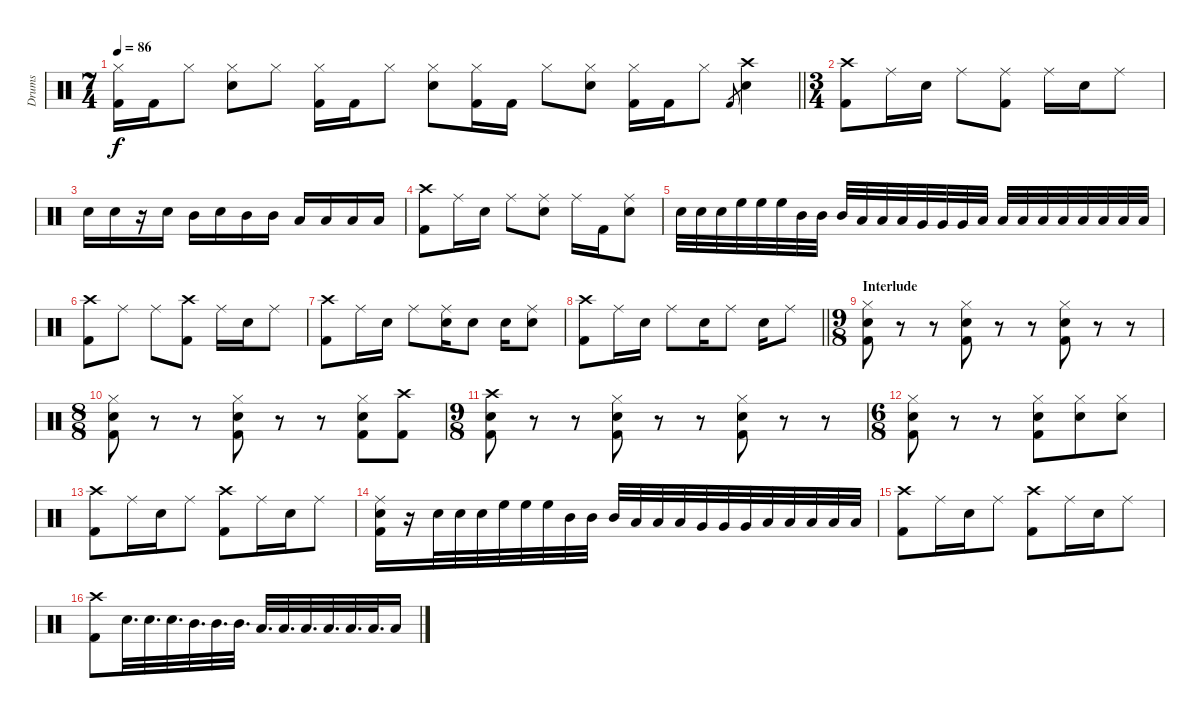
\track ("Drums" "Drums") {instrument percussion}
\staff {score}
\articulation defaults
\ts (7 4)
\tempo 86
\clef neutral
\barLineRight lightlight
\ks c
("Hi-Hat (closed)" "Kick (hit) 2").16{dy f} "Kick (hit) 2".16 "Hi-Hat (closed)".8 ("Hi-Hat (closed)" "Snare (hit) 2").8 "Hi-Hat (closed)".8 ("Hi-Hat (closed)" "Kick (hit) 2").16 "Kick (hit) 2".16 "Hi-Hat (closed)".8 ("Hi-Hat (closed)" "Snare (hit) 2").8 ("Hi-Hat (closed)" "Kick (hit) 2").16 "Kick (hit) 2".16 "Hi-Hat (closed)".8 ("Hi-Hat (closed)" "Snare (hit) 2").8 ("Hi-Hat (closed)" "Kick (hit) 2").16 "Kick (hit) 2".16 "Hi-Hat (closed)".8 "Kick (hit) 2".8{gr} ("Crash high (hit)" "Snare (hit) 2").4 |
\ts (3 4)
("Crash high (hit)" "Kick (hit) 2").8 "Ride (middle)".16 "Snare (hit) 2".16 "Ride (middle)".8 ("Ride (middle)" "Kick (hit) 2").8 "Ride (middle)".16 "Snare (hit) 2".16 "Ride (middle)".8 |
"Snare (hit) 2".16 "Snare (hit) 2".16 r.16 "Snare (hit) 2".16 "Mid Tom (hit)".16 "Snare (hit) 2".16 "Mid Tom (hit)".16 "Mid Tom (hit)".16 "Low Tom (hit)".16 "Low Tom (hit)".16 "Low Floor Tom (hit)".16 "Low Floor Tom (hit)".16 |
("Crash high (hit)" "Kick (hit) 2").8 "Ride (middle)".16 "Snare (hit) 2".16 "Ride (middle)".8 ("Ride (middle)" "Snare (hit) 2").8 "Ride (middle)".16 "Kick (hit) 2".16 ("Ride (middle)" "Snare (hit) 2").8 |
"Snare (hit) 2".32 "Snare (hit) 2".32 "Snare (hit) 2".32 "High Floor Tom (hit)".32 "High Floor Tom (hit)".32 "High Floor Tom (hit)".32 "Mid Tom (hit)".32 "Mid Tom (hit)".32 "Mid Tom (hit)".32 "Low Tom (hit)".32 "Low Tom (hit)".32 "Low Tom (hit)".32 "Very Low Tom (hit)".32 "Very Low Tom (hit)".32 "Very Low Tom (hit)".32 "Low Floor Tom (hit)".32 "Low Floor Tom (hit)".32 "Low Floor Tom (hit)".32 "Low Floor Tom (hit)".32 "Low Floor Tom (hit)".32 "Low Floor Tom (hit)".32 "Low Floor Tom (hit)".32 "Low Floor Tom (hit)".32 "Low Floor Tom (hit)".32 |
("Crash high (hit)" "Kick (hit) 2").8 "Ride (middle)".8 "Ride (middle)".8 ("Crash high (hit)" "Kick (hit) 2").8 "Ride (middle)".16 "Snare (hit) 2".16 "Ride (middle)".8 |
("Crash high (hit)" "Kick (hit) 2").8 "Ride (middle)".16 "Snare (hit) 2".16 "Ride (middle)".8 ("Ride (middle)" "Snare (hit) 2").16 "Snare (hit) 2".8 "Snare (hit) 2".16 ("Ride (middle)" "Snare (hit) 2").8 |
\barLineRight lightlight
("Crash high (hit)" "Kick (hit) 2").8 "Ride (middle)".16 "Snare (hit) 2".16 "Ride (middle)".8 "Snare (hit) 2".16 "Ride (middle)".8 "Snare (hit) 2".16 "Ride (middle)".8 |
\ts (9 8)
\section ("" "Interlude")
("Hi-Hat (closed)" "Snare (hit) 2" "Kick (hit) 2").8 r.8 r.8 ("Hi-Hat (closed)" "Snare (hit) 2" "Kick (hit) 2").8 r.8 r.8 ("Hi-Hat (closed)" "Snare (hit) 2" "Kick (hit) 2").8 r.8 r.8 |
\ts (8 8)
("Hi-Hat (closed)" "Snare (hit) 2" "Kick (hit) 2").8 r.8 r.8 ("Hi-Hat (closed)" "Snare (hit) 2" "Kick (hit) 2").8 r.8 r.8 ("Hi-Hat (closed)" "Snare (hit) 2" "Kick (hit) 2").8 ("Crash high (hit)" "Kick (hit) 2").8 |
\ts (9 8)
("Crash high (hit)" "Snare (hit) 2" "Kick (hit) 2").8 r.8 r.8 ("Hi-Hat (closed)" "Snare (hit) 2" "Kick (hit) 2").8 r.8 r.8 ("Hi-Hat (closed)" "Snare (hit) 2" "Kick (hit) 2").8 r.8 r.8 |
\ts (6 8)
("Hi-Hat (closed)" "Snare (hit) 2" "Kick (hit) 2").8 r.8 r.8 ("Hi-Hat (closed)" "Snare (hit) 2" "Kick (hit) 2").8 ("Hi-Hat (closed)" "Snare (hit) 2").8 ("Hi-Hat (closed)" "Snare (hit) 2").8 |
("Crash high (hit)" "Kick (hit) 2").8 "Ride (middle)".16 "Snare (hit) 2".16 "Ride (middle)".8 ("Crash high (hit)" "Kick (hit) 2").8 "Ride (middle)".16 "Snare (hit) 2".16 "Ride (middle)".8 |
("Ride (middle)" "Snare (hit) 2" "Kick (hit) 2").16 r.16 "Snare (hit) 2".32 "Snare (hit) 2".32 "Snare (hit) 2".32 "High Floor Tom (hit)".32 "High Floor Tom (hit)".32 "High Floor Tom (hit)".32 "Mid Tom (hit)".32 "Mid Tom (hit)".32 "Mid Tom (hit)".32 "Low Tom (hit)".32 "Low Tom (hit)".32 "Low Tom (hit)".32 "Very Low Tom (hit)".32 "Very Low Tom (hit)".32 "Very Low Tom (hit)".32 "Low Floor Tom (hit)".32 "Low Floor Tom (hit)".32 "Low Floor Tom (hit)".32 "Low Floor Tom (hit)".32 "Low Floor Tom (hit)".32 |
("Crash high (hit)" "Kick (hit) 2").8 "Ride (middle)".16 "Snare (hit) 2".16 "Ride (middle)".8 ("Crash high (hit)" "Kick (hit) 2").8 "Ride (middle)".16 "Snare (hit) 2".16 "Ride (middle)".8 |
("Crash high (hit)" "Kick (hit) 2").8 "Snare (hit) 2".32{d} "Snare (hit) 2".32{d} "Snare (hit) 2".32{d} "Mid Tom (hit)".32{d} "Mid Tom (hit)".32{d} "Mid Tom (hit)".32{d} "Low Tom (hit)".32{d} "Low Tom (hit)".32{d} "Low Tom (hit)".32{d} "Low Floor Tom (hit)".32{d} "Low Floor Tom (hit)".32{d} "Low Floor Tom (hit)".32{d} "Low Floor Tom (hit)".16
